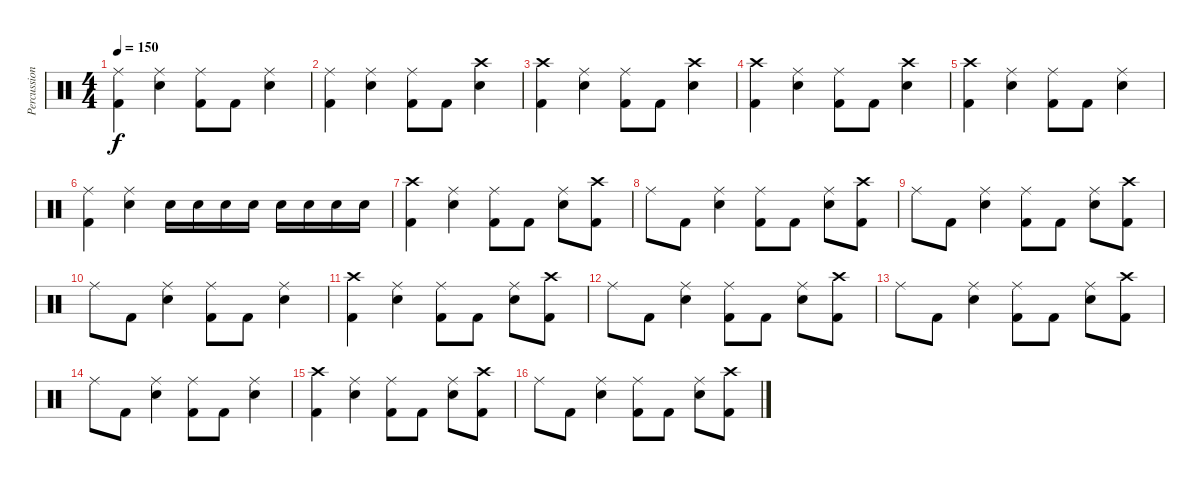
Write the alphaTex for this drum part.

\track ("Percussions" "Percussion") {instrument percussion}
\staff {score}
\articulation defaults
\ts (4 4)
\tempo 150
\clef neutral
\ks c
("Ride (middle)" "Kick (hit) 2").4{dy f} ("Ride (middle)" "Electric Snare (hit)").4 ("Ride (middle)" "Kick (hit) 2").8 "Kick (hit) 2".8 ("Ride (middle)" "Electric Snare (hit)").4 |
("Ride (middle)" "Kick (hit) 2").4 ("Ride (middle)" "Electric Snare (hit)").4 ("Ride (middle)" "Kick (hit) 2").8 "Kick (hit) 2".8 ("Crash high (hit)" "Electric Snare (hit)").4 |
("Crash high (hit)" "Kick (hit) 2").4 ("Ride (middle)" "Electric Snare (hit)").4 ("Ride (middle)" "Kick (hit) 2").8 "Kick (hit) 2".8 ("Crash high (hit)" "Electric Snare (hit)").4 |
("Crash high (hit)" "Kick (hit) 2").4 ("Ride (middle)" "Electric Snare (hit)").4 ("Ride (middle)" "Kick (hit) 2").8 "Kick (hit) 2".8 ("Crash high (hit)" "Electric Snare (hit)").4 |
("Crash high (hit)" "Kick (hit) 2").4 ("Ride (middle)" "Electric Snare (hit)").4 ("Ride (middle)" "Kick (hit) 2").8 "Kick (hit) 2".8 ("Ride (middle)" "Electric Snare (hit)").4 |
("Ride (middle)" "Kick (hit) 2").4 ("Ride (middle)" "Electric Snare (hit)").4 "Electric Snare (hit)".16 "Electric Snare (hit)".16 "Electric Snare (hit)".16 "Electric Snare (hit)".16 "Electric Snare (hit)".16 "Electric Snare (hit)".16 "Electric Snare (hit)".16 "Electric Snare (hit)".16 |
("Crash high (hit)" "Kick (hit) 2").4 ("Ride (middle)" "Electric Snare (hit)").4 ("Ride (middle)" "Kick (hit) 2").8 "Kick (hit) 2".8 ("Ride (middle)" "Electric Snare (hit)").8 ("Crash high (hit)" "Kick (hit) 2").8 |
"Ride (middle)".8 "Kick (hit) 2".8 ("Ride (middle)" "Electric Snare (hit)").4 ("Ride (middle)" "Kick (hit) 2").8 "Kick (hit) 2".8 ("Ride (middle)" "Electric Snare (hit)").8 ("Crash high (hit)" "Kick (hit) 2").8 |
"Ride (middle)".8 "Kick (hit) 2".8 ("Ride (middle)" "Electric Snare (hit)").4 ("Ride (middle)" "Kick (hit) 2").8 "Kick (hit) 2".8 ("Ride (middle)" "Electric Snare (hit)").8 ("Crash high (hit)" "Kick (hit) 2").8 |
"Ride (middle)".8 "Kick (hit) 2".8 ("Ride (middle)" "Electric Snare (hit)").4 ("Ride (middle)" "Kick (hit) 2").8 "Kick (hit) 2".8 ("Ride (middle)" "Electric Snare (hit)").4 |
("Crash high (hit)" "Kick (hit) 2").4 ("Ride (middle)" "Electric Snare (hit)").4 ("Ride (middle)" "Kick (hit) 2").8 "Kick (hit) 2".8 ("Ride (middle)" "Electric Snare (hit)").8 ("Crash high (hit)" "Kick (hit) 2").8 |
"Ride (middle)".8 "Kick (hit) 2".8 ("Ride (middle)" "Electric Snare (hit)").4 ("Ride (middle)" "Kick (hit) 2").8 "Kick (hit) 2".8 ("Ride (middle)" "Electric Snare (hit)").8 ("Crash high (hit)" "Kick (hit) 2").8 |
"Ride (middle)".8 "Kick (hit) 2".8 ("Ride (middle)" "Electric Snare (hit)").4 ("Ride (middle)" "Kick (hit) 2").8 "Kick (hit) 2".8 ("Ride (middle)" "Electric Snare (hit)").8 ("Crash high (hit)" "Kick (hit) 2").8 |
"Ride (middle)".8 "Kick (hit) 2".8 ("Ride (middle)" "Electric Snare (hit)").4 ("Ride (middle)" "Kick (hit) 2").8 "Kick (hit) 2".8 ("Ride (middle)" "Electric Snare (hit)").4 |
("Crash high (hit)" "Kick (hit) 2").4 ("Ride (middle)" "Electric Snare (hit)").4 ("Ride (middle)" "Kick (hit) 2").8 "Kick (hit) 2".8 ("Ride (middle)" "Electric Snare (hit)").8 ("Crash high (hit)" "Kick (hit) 2").8 |
"Ride (middle)".8 "Kick (hit) 2".8 ("Ride (middle)" "Electric Snare (hit)").4 ("Ride (middle)" "Kick (hit) 2").8 "Kick (hit) 2".8 ("Ride (middle)" "Electric Snare (hit)").8 ("Crash high (hit)" "Kick (hit) 2").8
